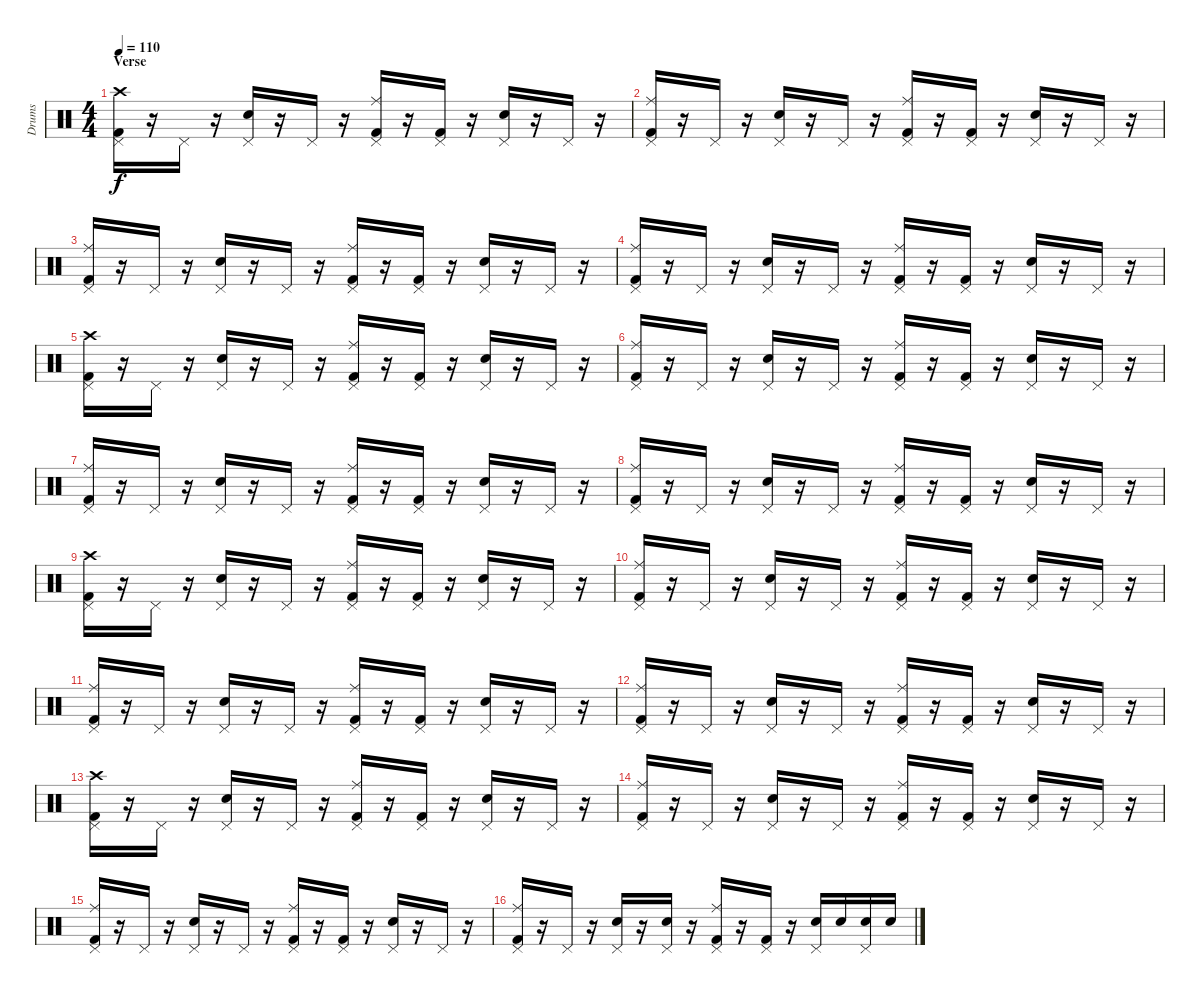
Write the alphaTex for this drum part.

\track ("Drums" "Drums") {instrument percussion}
\staff {score}
\articulation defaults
\ts (4 4)
\section ("" "Verse")
\tempo 110
\clef neutral
\ks c
("Crash high (hit)" "Kick (hit) 2" "Pedal Hi-Hat (hit)").16{dy f} r.16 "Pedal Hi-Hat (hit)".16 r.16 ("Snare (hit) 2" "Pedal Hi-Hat (hit)").16 r.16 "Pedal Hi-Hat (hit)".16 r.16 ("Ride (middle)" "Kick (hit) 2" "Pedal Hi-Hat (hit)").16 r.16 ("Kick (hit) 2" "Pedal Hi-Hat (hit)").16 r.16 ("Snare (hit) 2" "Pedal Hi-Hat (hit)").16 r.16 "Pedal Hi-Hat (hit)".16 r.16 |
("Ride (middle)" "Kick (hit) 2" "Pedal Hi-Hat (hit)").16 r.16 "Pedal Hi-Hat (hit)".16 r.16 ("Snare (hit) 2" "Pedal Hi-Hat (hit)").16 r.16 "Pedal Hi-Hat (hit)".16 r.16 ("Ride (middle)" "Kick (hit) 2" "Pedal Hi-Hat (hit)").16 r.16 ("Kick (hit) 2" "Pedal Hi-Hat (hit)").16 r.16 ("Snare (hit) 2" "Pedal Hi-Hat (hit)").16 r.16 "Pedal Hi-Hat (hit)".16 r.16 |
("Ride (middle)" "Kick (hit) 2" "Pedal Hi-Hat (hit)").16 r.16 "Pedal Hi-Hat (hit)".16 r.16 ("Snare (hit) 2" "Pedal Hi-Hat (hit)").16 r.16 "Pedal Hi-Hat (hit)".16 r.16 ("Ride (middle)" "Kick (hit) 2" "Pedal Hi-Hat (hit)").16 r.16 ("Kick (hit) 2" "Pedal Hi-Hat (hit)").16 r.16 ("Snare (hit) 2" "Pedal Hi-Hat (hit)").16 r.16 "Pedal Hi-Hat (hit)".16 r.16 |
("Ride (middle)" "Kick (hit) 2" "Pedal Hi-Hat (hit)").16 r.16 "Pedal Hi-Hat (hit)".16 r.16 ("Snare (hit) 2" "Pedal Hi-Hat (hit)").16 r.16 "Pedal Hi-Hat (hit)".16 r.16 ("Ride (middle)" "Kick (hit) 2" "Pedal Hi-Hat (hit)").16 r.16 ("Kick (hit) 2" "Pedal Hi-Hat (hit)").16 r.16 ("Snare (hit) 2" "Pedal Hi-Hat (hit)").16 r.16 "Pedal Hi-Hat (hit)".16 r.16 |
("Crash high (hit)" "Kick (hit) 2" "Pedal Hi-Hat (hit)").16 r.16 "Pedal Hi-Hat (hit)".16 r.16 ("Snare (hit) 2" "Pedal Hi-Hat (hit)").16 r.16 "Pedal Hi-Hat (hit)".16 r.16 ("Ride (middle)" "Kick (hit) 2" "Pedal Hi-Hat (hit)").16 r.16 ("Kick (hit) 2" "Pedal Hi-Hat (hit)").16 r.16 ("Snare (hit) 2" "Pedal Hi-Hat (hit)").16 r.16 "Pedal Hi-Hat (hit)".16 r.16 |
("Ride (middle)" "Kick (hit) 2" "Pedal Hi-Hat (hit)").16 r.16 "Pedal Hi-Hat (hit)".16 r.16 ("Snare (hit) 2" "Pedal Hi-Hat (hit)").16 r.16 "Pedal Hi-Hat (hit)".16 r.16 ("Ride (middle)" "Kick (hit) 2" "Pedal Hi-Hat (hit)").16 r.16 ("Kick (hit) 2" "Pedal Hi-Hat (hit)").16 r.16 ("Snare (hit) 2" "Pedal Hi-Hat (hit)").16 r.16 "Pedal Hi-Hat (hit)".16 r.16 |
("Ride (middle)" "Kick (hit) 2" "Pedal Hi-Hat (hit)").16 r.16 "Pedal Hi-Hat (hit)".16 r.16 ("Snare (hit) 2" "Pedal Hi-Hat (hit)").16 r.16 "Pedal Hi-Hat (hit)".16 r.16 ("Ride (middle)" "Kick (hit) 2" "Pedal Hi-Hat (hit)").16 r.16 ("Kick (hit) 2" "Pedal Hi-Hat (hit)").16 r.16 ("Snare (hit) 2" "Pedal Hi-Hat (hit)").16 r.16 "Pedal Hi-Hat (hit)".16 r.16 |
("Ride (middle)" "Kick (hit) 2" "Pedal Hi-Hat (hit)").16 r.16 "Pedal Hi-Hat (hit)".16 r.16 ("Snare (hit) 2" "Pedal Hi-Hat (hit)").16 r.16 "Pedal Hi-Hat (hit)".16 r.16 ("Ride (middle)" "Kick (hit) 2" "Pedal Hi-Hat (hit)").16 r.16 ("Kick (hit) 2" "Pedal Hi-Hat (hit)").16 r.16 ("Snare (hit) 2" "Pedal Hi-Hat (hit)").16 r.16 "Pedal Hi-Hat (hit)".16 r.16 |
("Crash high (hit)" "Kick (hit) 2" "Pedal Hi-Hat (hit)").16 r.16 "Pedal Hi-Hat (hit)".16 r.16 ("Snare (hit) 2" "Pedal Hi-Hat (hit)").16 r.16 "Pedal Hi-Hat (hit)".16 r.16 ("Ride (middle)" "Kick (hit) 2" "Pedal Hi-Hat (hit)").16 r.16 ("Kick (hit) 2" "Pedal Hi-Hat (hit)").16 r.16 ("Snare (hit) 2" "Pedal Hi-Hat (hit)").16 r.16 "Pedal Hi-Hat (hit)".16 r.16 |
("Ride (middle)" "Kick (hit) 2" "Pedal Hi-Hat (hit)").16 r.16 "Pedal Hi-Hat (hit)".16 r.16 ("Snare (hit) 2" "Pedal Hi-Hat (hit)").16 r.16 "Pedal Hi-Hat (hit)".16 r.16 ("Ride (middle)" "Kick (hit) 2" "Pedal Hi-Hat (hit)").16 r.16 ("Kick (hit) 2" "Pedal Hi-Hat (hit)").16 r.16 ("Snare (hit) 2" "Pedal Hi-Hat (hit)").16 r.16 "Pedal Hi-Hat (hit)".16 r.16 |
("Ride (middle)" "Kick (hit) 2" "Pedal Hi-Hat (hit)").16 r.16 "Pedal Hi-Hat (hit)".16 r.16 ("Snare (hit) 2" "Pedal Hi-Hat (hit)").16 r.16 "Pedal Hi-Hat (hit)".16 r.16 ("Ride (middle)" "Kick (hit) 2" "Pedal Hi-Hat (hit)").16 r.16 ("Kick (hit) 2" "Pedal Hi-Hat (hit)").16 r.16 ("Snare (hit) 2" "Pedal Hi-Hat (hit)").16 r.16 "Pedal Hi-Hat (hit)".16 r.16 |
("Ride (middle)" "Kick (hit) 2" "Pedal Hi-Hat (hit)").16 r.16 "Pedal Hi-Hat (hit)".16 r.16 ("Snare (hit) 2" "Pedal Hi-Hat (hit)").16 r.16 "Pedal Hi-Hat (hit)".16 r.16 ("Ride (middle)" "Kick (hit) 2" "Pedal Hi-Hat (hit)").16 r.16 ("Kick (hit) 2" "Pedal Hi-Hat (hit)").16 r.16 ("Snare (hit) 2" "Pedal Hi-Hat (hit)").16 r.16 "Pedal Hi-Hat (hit)".16 r.16 |
("Crash high (hit)" "Kick (hit) 2" "Pedal Hi-Hat (hit)").16 r.16 "Pedal Hi-Hat (hit)".16 r.16 ("Snare (hit) 2" "Pedal Hi-Hat (hit)").16 r.16 "Pedal Hi-Hat (hit)".16 r.16 ("Ride (middle)" "Kick (hit) 2" "Pedal Hi-Hat (hit)").16 r.16 ("Kick (hit) 2" "Pedal Hi-Hat (hit)").16 r.16 ("Snare (hit) 2" "Pedal Hi-Hat (hit)").16 r.16 "Pedal Hi-Hat (hit)".16 r.16 |
("Ride (middle)" "Kick (hit) 2" "Pedal Hi-Hat (hit)").16 r.16 "Pedal Hi-Hat (hit)".16 r.16 ("Snare (hit) 2" "Pedal Hi-Hat (hit)").16 r.16 "Pedal Hi-Hat (hit)".16 r.16 ("Ride (middle)" "Kick (hit) 2" "Pedal Hi-Hat (hit)").16 r.16 ("Kick (hit) 2" "Pedal Hi-Hat (hit)").16 r.16 ("Snare (hit) 2" "Pedal Hi-Hat (hit)").16 r.16 "Pedal Hi-Hat (hit)".16 r.16 |
("Ride (middle)" "Kick (hit) 2" "Pedal Hi-Hat (hit)").16 r.16 "Pedal Hi-Hat (hit)".16 r.16 ("Snare (hit) 2" "Pedal Hi-Hat (hit)").16 r.16 "Pedal Hi-Hat (hit)".16 r.16 ("Ride (middle)" "Kick (hit) 2" "Pedal Hi-Hat (hit)").16 r.16 ("Kick (hit) 2" "Pedal Hi-Hat (hit)").16 r.16 ("Snare (hit) 2" "Pedal Hi-Hat (hit)").16 r.16 "Pedal Hi-Hat (hit)".16 r.16 |
("Ride (middle)" "Kick (hit) 2" "Pedal Hi-Hat (hit)").16 r.16 "Pedal Hi-Hat (hit)".16 r.16 ("Snare (hit) 2" "Pedal Hi-Hat (hit)").16 r.16 ("Snare (hit) 2" "Pedal Hi-Hat (hit)").16 r.16 ("Ride (middle)" "Kick (hit) 2" "Pedal Hi-Hat (hit)").16 r.16 ("Kick (hit) 2" "Pedal Hi-Hat (hit)").16 r.16 ("Snare (hit) 2" "Pedal Hi-Hat (hit)").16 "Snare (hit) 2".16 ("Snare (hit) 2" "Pedal Hi-Hat (hit)").16 "Snare (hit) 2".16
